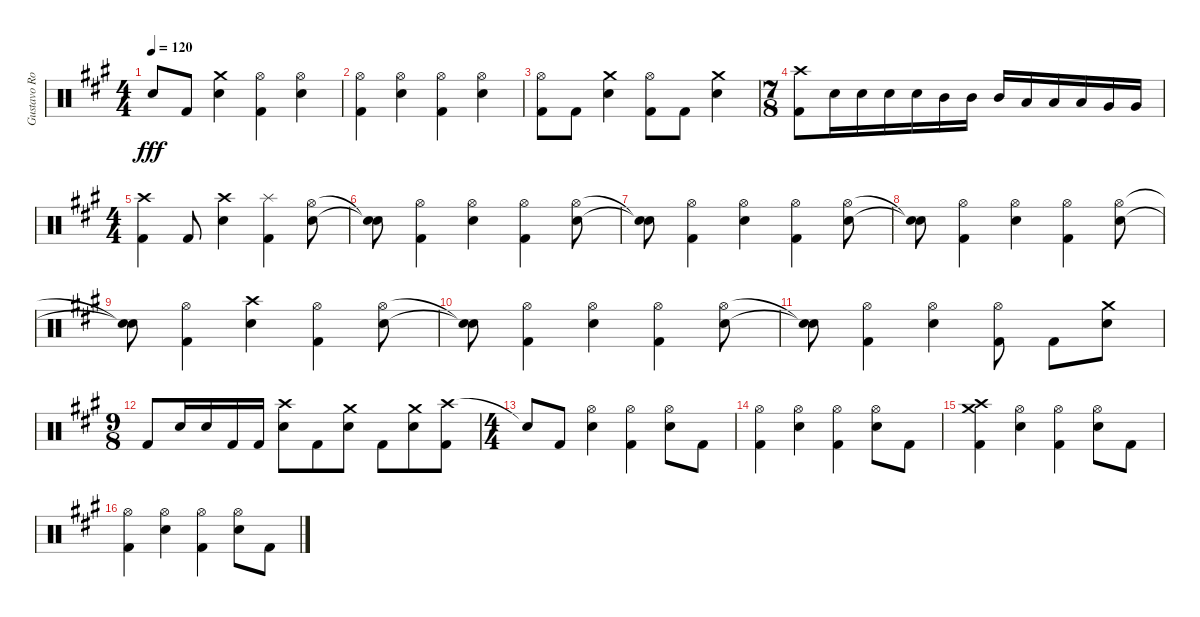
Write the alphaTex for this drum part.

\track ("Gustavo Rowek" "Gustavo Ro") {instrument percussion}
\staff {score}
\articulation defaults
\ts (4 4)
\tempo 120
\clef neutral
\ks a "Snare (hit)"{t}.8{dy fff} "Kick (hit) 2".8
("Crash medium (hit)" "Snare (hit) 2").4 ("Hi-Hat (open)" "Kick (hit) 2").4 ("Hi-Hat (open)" "Snare (hit) 2").4 |
("Hi-Hat (open)" "Kick (hit) 2").4 ("Hi-Hat (open)" "Snare (hit) 2").4 ("Hi-Hat (open)" "Kick (hit) 2").4 ("Hi-Hat (open)" "Snare (hit) 2").4 |
("Hi-Hat (open)" "Kick (hit) 2").8 "Kick (hit) 2".8 ("Crash medium (hit)" "Snare (hit) 2").4 ("Hi-Hat (open)" "Kick (hit) 2").8 "Kick (hit) 2".8 ("Crash medium (hit)" "Snare (hit) 2").4 |
\ts (7 8)
("Crash high (hit)" "Kick (hit) 2").8 "Snare (hit) 2".16 "Snare (hit) 2".16 "Snare (hit) 2".16 "Snare (hit) 2".16 "Mid Tom (hit)".16 "Mid Tom (hit)".16 "Mid Tom (hit)".16 "Low Tom (hit)".16 "Low Tom (hit)".16 "Low Tom (hit)".16 "Very Low Tom (hit)".16 "Very Low Tom (hit)".16 |
\ts (4 4)
("Crash high (hit)" "Kick (hit) 2").4 "Kick (hit) 2".8 ("Crash high (hit)" "Snare (hit) 2").4 ("Splash (hit)" "Kick (hit) 2").4 ("Hi-Hat (open)" "Snare (hit) 2").8 |
("Snare (hit)"{t} "Snare (hit)"{t}).8 ("Hi-Hat (open)" "Kick (hit) 2").4 ("Hi-Hat (open)" "Snare (hit) 2").4 ("Hi-Hat (open)" "Kick (hit) 2").4 ("Hi-Hat (open)" "Snare (hit) 2").8 |
("Snare (hit)"{t} "Snare (hit)"{t}).8 ("Hi-Hat (open)" "Kick (hit) 2").4 ("Hi-Hat (open)" "Snare (hit) 2").4 ("Hi-Hat (open)" "Kick (hit) 2").4 ("Hi-Hat (open)" "Snare (hit) 2").8 |
("Snare (hit)"{t} "Snare (hit)"{t}).8 ("Hi-Hat (open)" "Kick (hit) 2").4 ("Hi-Hat (open)" "Snare (hit) 2").4 ("Hi-Hat (open)" "Kick (hit) 2").4 ("Hi-Hat (open)" "Snare (hit) 2").8 |
("Snare (hit)"{t} "Snare (hit)"{t}).8 ("Hi-Hat (open)" "Kick (hit) 2").4 ("Crash high (hit)" "Snare (hit) 2").4 ("Hi-Hat (open)" "Kick (hit) 2").4 ("Hi-Hat (open)" "Snare (hit) 2").8 |
("Snare (hit)"{t} "Snare (hit)"{t}).8 ("Hi-Hat (open)" "Kick (hit) 2").4 ("Hi-Hat (open)" "Snare (hit) 2").4 ("Hi-Hat (open)" "Kick (hit) 2").4 ("Hi-Hat (open)" "Snare (hit) 2").8 |
("Snare (hit)"{t} "Snare (hit)"{t}).8 ("Hi-Hat (open)" "Kick (hit) 2").4 ("Hi-Hat (open)" "Snare (hit) 2").4 ("Hi-Hat (open)" "Kick (hit) 2").8 "Kick (hit) 2".8 ("Crash medium (hit)" "Snare (hit) 2").8 |
\ts (9 8)
"Kick (hit) 2".8 "Snare (hit) 2".16 "Snare (hit) 2".16 "Kick (hit) 2".16 "Kick (hit) 2".16 ("Crash high (hit)" "Snare (hit) 2").8 "Kick (hit) 2".8 ("Crash medium (hit)" "Snare (hit) 2").8 "Kick (hit) 2".8 ("Crash medium (hit)" "Snare (hit) 2").8 ("Crash high (hit)" "Kick (hit) 2").8 |
\ts (4 4)
"Snare (hit)"{t}.8 "Kick (hit) 2".8 ("Hi-Hat (open)" "Snare (hit) 2").4 ("Hi-Hat (open)" "Kick (hit) 2").4 ("Hi-Hat (open)" "Snare (hit) 2").8 "Kick (hit) 2".8 |
("Hi-Hat (open)" "Kick (hit) 2").4 ("Hi-Hat (open)" "Snare (hit) 2").4 ("Hi-Hat (open)" "Kick (hit) 2").4 ("Hi-Hat (open)" "Snare (hit) 2").8 "Kick (hit) 2".8 |
("Crash medium (hit)" "Crash high (hit)" "Kick (hit) 2").4 ("Hi-Hat (open)" "Snare (hit) 2").4 ("Hi-Hat (open)" "Kick (hit) 2").4 ("Hi-Hat (open)" "Snare (hit) 2").8 "Kick (hit) 2".8 |
("Hi-Hat (open)" "Kick (hit) 2").4 ("Hi-Hat (open)" "Snare (hit) 2").4 ("Hi-Hat (open)" "Kick (hit) 2").4 ("Hi-Hat (open)" "Snare (hit) 2").8 "Kick (hit) 2".8
